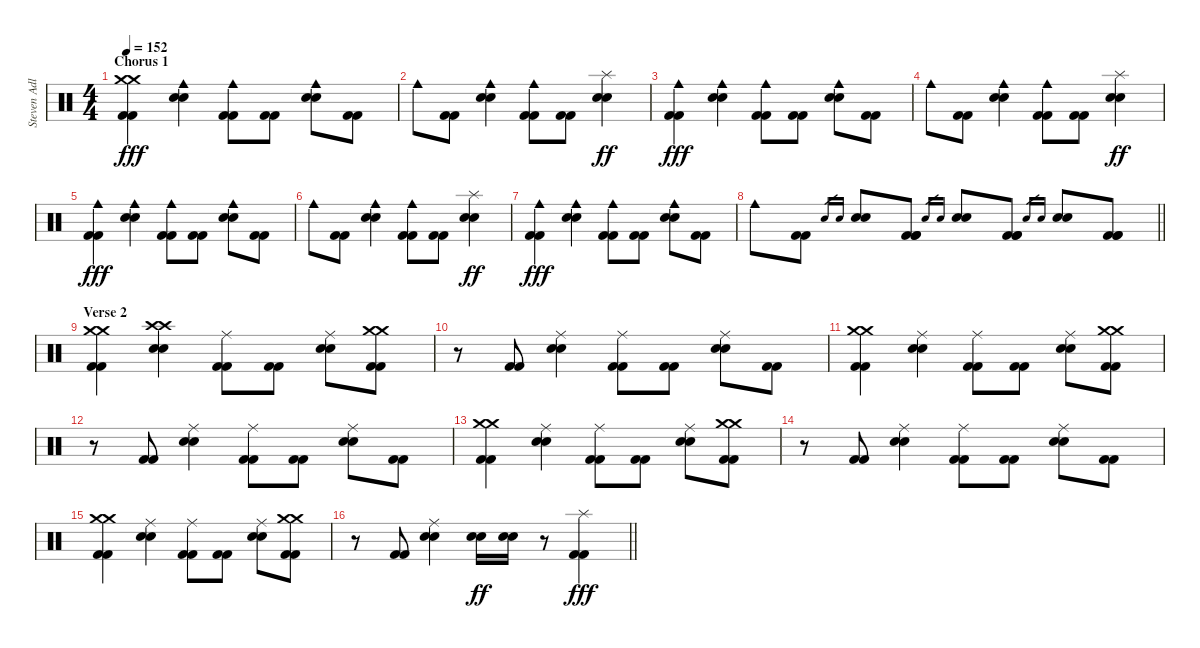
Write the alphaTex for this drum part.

\track ("Steven Adler" "Steven Adl") {instrument percussion}
\staff {score}
\articulation defaults
\ts (4 4)
\section ("" "Chorus 1")
\tempo 152
\clef neutral
\ks c
("Crash medium (hit)" "Crash medium (hit)" "Kick (hit) 2" "Kick (hit) 2").4{dy fff} ("Cowbell medium (hit)" "Electric Snare (hit)" "Electric Snare (hit)").4 ("Cowbell medium (hit)" "Kick (hit) 2" "Kick (hit) 2").8 ("Kick (hit) 2" "Kick (hit) 2").8 ("Cowbell medium (hit)" "Electric Snare (hit)" "Electric Snare (hit)").8 ("Kick (hit) 2" "Kick (hit) 2").8 |
"Cowbell medium (hit)".8 ("Kick (hit) 2" "Kick (hit) 2").8 ("Cowbell medium (hit)" "Electric Snare (hit)" "Electric Snare (hit)").4 ("Cowbell medium (hit)" "Kick (hit) 2" "Kick (hit) 2").8 ("Kick (hit) 2" "Kick (hit) 2").8 ("Splash (hit)" "Electric Snare (hit)" "Electric Snare (hit)").4{dy ff} |
("Cowbell medium (hit)" "Kick (hit) 2" "Kick (hit) 2").4{dy fff} ("Cowbell medium (hit)" "Electric Snare (hit)" "Electric Snare (hit)").4 ("Cowbell medium (hit)" "Kick (hit) 2" "Kick (hit) 2").8 ("Kick (hit) 2" "Kick (hit) 2").8 ("Cowbell medium (hit)" "Electric Snare (hit)" "Electric Snare (hit)").8 ("Kick (hit) 2" "Kick (hit) 2").8 |
"Cowbell medium (hit)".8 ("Kick (hit) 2" "Kick (hit) 2").8 ("Cowbell medium (hit)" "Electric Snare (hit)" "Electric Snare (hit)").4 ("Cowbell medium (hit)" "Kick (hit) 2" "Kick (hit) 2").8 ("Kick (hit) 2" "Kick (hit) 2").8 ("Splash (hit)" "Electric Snare (hit)" "Electric Snare (hit)").4{dy ff} |
("Cowbell medium (hit)" "Kick (hit) 2" "Kick (hit) 2").4{dy fff} ("Cowbell medium (hit)" "Electric Snare (hit)" "Electric Snare (hit)").4 ("Cowbell medium (hit)" "Kick (hit) 2" "Kick (hit) 2").8 ("Kick (hit) 2" "Kick (hit) 2").8 ("Cowbell medium (hit)" "Electric Snare (hit)" "Electric Snare (hit)").8 ("Kick (hit) 2" "Kick (hit) 2").8 |
"Cowbell medium (hit)".8 ("Kick (hit) 2" "Kick (hit) 2").8 ("Cowbell medium (hit)" "Electric Snare (hit)" "Electric Snare (hit)").4 ("Cowbell medium (hit)" "Kick (hit) 2" "Kick (hit) 2").8 ("Kick (hit) 2" "Kick (hit) 2").8 ("Splash (hit)" "Electric Snare (hit)" "Electric Snare (hit)").4{dy ff} |
("Cowbell medium (hit)" "Kick (hit) 2" "Kick (hit) 2").4{dy fff} ("Cowbell medium (hit)" "Electric Snare (hit)" "Electric Snare (hit)").4 ("Cowbell medium (hit)" "Kick (hit) 2" "Kick (hit) 2").8 ("Kick (hit) 2" "Kick (hit) 2").8 ("Cowbell medium (hit)" "Electric Snare (hit)" "Electric Snare (hit)").8 ("Kick (hit) 2" "Kick (hit) 2").8 |
\barLineRight lightlight "Cowbell medium (hit)".8
("Kick (hit) 2" "Kick (hit) 2").8 "Electric Snare (hit)".16{gr} "Electric Snare (hit)".16{gr} ("Electric Snare (hit)" "Electric Snare (hit)").8 ("Kick (hit) 2" "Kick (hit) 2" "Kick (hit) 2").8 "Electric Snare (hit)".16{gr} "Electric Snare (hit)".16{gr} ("Electric Snare (hit)" "Electric Snare (hit)").8 ("Kick (hit) 2" "Kick (hit) 2" "Kick (hit) 2").8 "Electric Snare (hit)".16{gr} "Electric Snare (hit)".16{gr} ("Electric Snare (hit)" "Electric Snare (hit)").8 ("Kick (hit) 2" "Kick (hit) 2" "Kick (hit) 2").8 |
\section ("" "Verse 2")
("Crash medium (hit)" "Crash medium (hit)" "Kick (hit) 2" "Kick (hit) 2").4 ("Crash high (hit)" "Crash high (hit)" "Electric Snare (hit)" "Electric Snare (hit)").4 ("Ride (middle)" "Kick (hit) 2" "Kick (hit) 2").8 ("Kick (hit) 2" "Kick (hit) 2").8 ("Ride (middle)" "Electric Snare (hit)" "Electric Snare (hit)").8 ("Crash medium (hit)" "Crash medium (hit)" "Kick (hit) 2" "Kick (hit) 2").8 |
r.8 ("Kick (hit) 2" "Kick (hit) 2").8 ("Ride (middle)" "Electric Snare (hit)" "Electric Snare (hit)").4 ("Ride (middle)" "Kick (hit) 2" "Kick (hit) 2").8 ("Kick (hit) 2" "Kick (hit) 2").8 ("Ride (middle)" "Electric Snare (hit)" "Electric Snare (hit)").8 ("Kick (hit) 2" "Kick (hit) 2").8 |
("Crash medium (hit)" "Crash medium (hit)" "Kick (hit) 2" "Kick (hit) 2").4 ("Ride (middle)" "Electric Snare (hit)" "Electric Snare (hit)").4 ("Ride (middle)" "Kick (hit) 2" "Kick (hit) 2").8 ("Kick (hit) 2" "Kick (hit) 2").8 ("Ride (middle)" "Electric Snare (hit)" "Electric Snare (hit)").8 ("Crash medium (hit)" "Crash medium (hit)" "Kick (hit) 2" "Kick (hit) 2").8 |
r.8 ("Kick (hit) 2" "Kick (hit) 2").8 ("Ride (middle)" "Electric Snare (hit)" "Electric Snare (hit)").4 ("Ride (middle)" "Kick (hit) 2" "Kick (hit) 2").8 ("Kick (hit) 2" "Kick (hit) 2").8 ("Ride (middle)" "Electric Snare (hit)" "Electric Snare (hit)").8 ("Kick (hit) 2" "Kick (hit) 2").8 |
("Crash medium (hit)" "Crash medium (hit)" "Kick (hit) 2" "Kick (hit) 2").4 ("Ride (middle)" "Electric Snare (hit)" "Electric Snare (hit)").4 ("Ride (middle)" "Kick (hit) 2" "Kick (hit) 2").8 ("Kick (hit) 2" "Kick (hit) 2").8 ("Ride (middle)" "Electric Snare (hit)" "Electric Snare (hit)").8 ("Crash medium (hit)" "Crash medium (hit)" "Kick (hit) 2" "Kick (hit) 2").8 |
r.8 ("Kick (hit) 2" "Kick (hit) 2").8 ("Ride (middle)" "Electric Snare (hit)" "Electric Snare (hit)").4 ("Ride (middle)" "Kick (hit) 2" "Kick (hit) 2").8 ("Kick (hit) 2" "Kick (hit) 2").8 ("Ride (middle)" "Electric Snare (hit)" "Electric Snare (hit)").8 ("Kick (hit) 2" "Kick (hit) 2").8 |
("Crash medium (hit)" "Crash medium (hit)" "Kick (hit) 2" "Kick (hit) 2").4 ("Ride (middle)" "Electric Snare (hit)" "Electric Snare (hit)").4 ("Ride (middle)" "Kick (hit) 2" "Kick (hit) 2").8 ("Kick (hit) 2" "Kick (hit) 2").8 ("Ride (middle)" "Electric Snare (hit)" "Electric Snare (hit)").8 ("Crash medium (hit)" "Crash medium (hit)" "Kick (hit) 2" "Kick (hit) 2").8 |
\barLineRight lightlight
r.8 ("Kick (hit) 2" "Kick (hit) 2").8 ("Ride (middle)" "Electric Snare (hit)" "Electric Snare (hit)").4 ("Electric Snare (hit)" "Electric Snare (hit)").16{dy ff} ("Electric Snare (hit)" "Electric Snare (hit)").16 r.8 ("Splash (hit)" "Kick (hit) 2" "Kick (hit) 2").4{dy fff}
